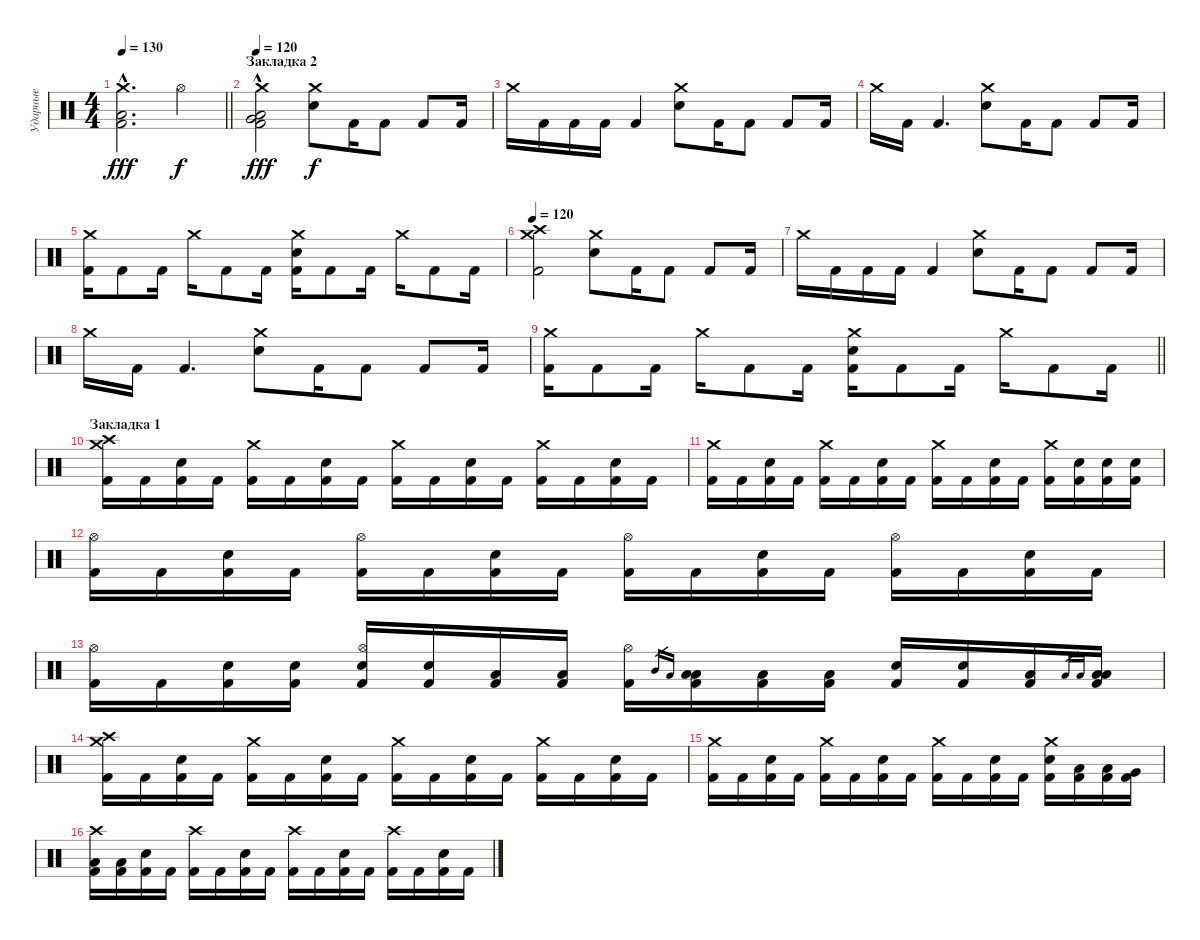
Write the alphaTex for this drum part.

\track ("Ударные" "Ударные") {instrument percussion}
\staff {score}
\articulation defaults
\ts (4 4)
\tempo 130
\clef neutral
\barLineRight lightlight
\ks c
("Crash medium (hit)" "Low Floor Tom (hit)"{hac} "Kick (hit) 2"{hac}).2{d dy fff} "Hi-Hat (open)".4{dy f} |
\section ("" "Закладка 2")
\tempo 120
("Crash medium (hit)" "Very Low Tom (hit)"{hac} "Low Floor Tom (hit)"{hac} "Kick (hit) 2"{hac}).2{dy fff} ("Crash medium (hit)" "Electric Snare (hit)").8{dy f} "Kick (hit) 2".16 "Kick (hit) 2".8 "Kick (hit) 2".8 "Kick (hit) 2".16 |
"Crash medium (hit)".16 "Kick (hit) 2".16 "Kick (hit) 2".16 "Kick (hit) 2".16 "Kick (hit) 2".4 ("Crash medium (hit)" "Electric Snare (hit)").8 "Kick (hit) 2".16 "Kick (hit) 2".8 "Kick (hit) 2".8 "Kick (hit) 2".16 |
"Crash medium (hit)".16 "Kick (hit) 2".16 "Kick (hit) 2".4{d} ("Crash medium (hit)" "Electric Snare (hit)").8 "Kick (hit) 2".16 "Kick (hit) 2".8 "Kick (hit) 2".8 "Kick (hit) 2".16 |
("Crash medium (hit)" "Kick (hit) 2").16 "Kick (hit) 2".8 "Kick (hit) 2".16 "Crash medium (hit)".16 "Kick (hit) 2".8 "Kick (hit) 2".16 ("Crash medium (hit)" "Electric Snare (hit)" "Kick (hit) 2").16 "Kick (hit) 2".8 "Kick (hit) 2".16 "Crash medium (hit)".16 "Kick (hit) 2".8 "Kick (hit) 2".16 |
\tempo 120
("Crash medium (hit)" "Crash high (hit)" "Kick (hit) 2").2 ("Crash medium (hit)" "Electric Snare (hit)").8 "Kick (hit) 2".16 "Kick (hit) 2".8 "Kick (hit) 2".8 "Kick (hit) 2".16 |
"Crash medium (hit)".16 "Kick (hit) 2".16 "Kick (hit) 2".16 "Kick (hit) 2".16 "Kick (hit) 2".4 ("Crash medium (hit)" "Electric Snare (hit)").8 "Kick (hit) 2".16 "Kick (hit) 2".8 "Kick (hit) 2".8 "Kick (hit) 2".16 |
"Crash medium (hit)".16 "Kick (hit) 2".16 "Kick (hit) 2".4{d} ("Crash medium (hit)" "Electric Snare (hit)").8 "Kick (hit) 2".16 "Kick (hit) 2".8 "Kick (hit) 2".8 "Kick (hit) 2".16 |
\barLineRight lightlight
("Crash medium (hit)" "Kick (hit) 2").16 "Kick (hit) 2".8 "Kick (hit) 2".16 "Crash medium (hit)".16 "Kick (hit) 2".8 "Kick (hit) 2".16 ("Crash medium (hit)" "Electric Snare (hit)" "Kick (hit) 2").16 "Kick (hit) 2".8 "Kick (hit) 2".16 "Crash medium (hit)".16 "Kick (hit) 2".8 "Kick (hit) 2".16 |
\section ("" "Закладка 1")
("Crash medium (hit)" "Crash high (hit)" "Kick (hit) 2").16 "Kick (hit) 2".16 ("Electric Snare (hit)" "Kick (hit) 2").16 "Kick (hit) 2".16 ("Crash medium (hit)" "Kick (hit) 2").16 "Kick (hit) 2".16 ("Electric Snare (hit)" "Kick (hit) 2").16 "Kick (hit) 2".16 ("Crash medium (hit)" "Kick (hit) 2").16 "Kick (hit) 2".16 ("Electric Snare (hit)" "Kick (hit) 2").16 "Kick (hit) 2".16 ("Crash medium (hit)" "Kick (hit) 2").16 "Kick (hit) 2".16 ("Electric Snare (hit)" "Kick (hit) 2").16 "Kick (hit) 2".16 |
("Crash medium (hit)" "Kick (hit) 2").16 "Kick (hit) 2".16 ("Electric Snare (hit)" "Kick (hit) 2").16 "Kick (hit) 2".16 ("Crash medium (hit)" "Kick (hit) 2").16 "Kick (hit) 2".16 ("Electric Snare (hit)" "Kick (hit) 2").16 "Kick (hit) 2".16 ("Crash medium (hit)" "Kick (hit) 2").16 "Kick (hit) 2".16 ("Electric Snare (hit)" "Kick (hit) 2").16 "Kick (hit) 2".16 ("Crash medium (hit)" "Kick (hit) 2").16 ("Electric Snare (hit)" "Kick (hit) 2").16 ("Electric Snare (hit)" "Kick (hit) 2").16 ("Electric Snare (hit)" "Kick (hit) 2").16 |
("Hi-Hat (open)" "Kick (hit) 2").16 "Kick (hit) 2".16 ("Electric Snare (hit)" "Kick (hit) 2").16 "Kick (hit) 2".16 ("Hi-Hat (open)" "Kick (hit) 2").16 "Kick (hit) 2".16 ("Electric Snare (hit)" "Kick (hit) 2").16 "Kick (hit) 2".16 ("Hi-Hat (open)" "Kick (hit) 2").16 "Kick (hit) 2".16 ("Electric Snare (hit)" "Kick (hit) 2").16 "Kick (hit) 2".16 ("Hi-Hat (open)" "Kick (hit) 2").16 "Kick (hit) 2".16 ("Electric Snare (hit)" "Kick (hit) 2").16 "Kick (hit) 2".16 |
("Hi-Hat (open)" "Kick (hit) 2").16 "Kick (hit) 2".16 ("Electric Snare (hit)" "Kick (hit) 2").16 ("Electric Snare (hit)" "Kick (hit) 2").16 ("Hi-Hat (open)" "Electric Snare (hit)" "Kick (hit) 2").16 ("Electric Snare (hit)" "Kick (hit) 2").16 ("Low Tom (hit)" "Kick (hit) 2").16 ("Low Tom (hit)" "Kick (hit) 2").16 ("Hi-Hat (open)" "Kick (hit) 2").16 "Mid Tom (hit)".16{gr} "Low Tom (hit)".16{gr} ("Low Tom (hit)" "Low Tom (hit)" "Kick (hit) 2").16 ("Low Tom (hit)" "Kick (hit) 2").16 ("Low Tom (hit)" "Kick (hit) 2").16 ("Electric Snare (hit)" "Kick (hit) 2").16 ("Electric Snare (hit)" "Kick (hit) 2").16 ("Low Floor Tom (hit)" "Kick (hit) 2").16 "Low Floor Tom (hit)".16{gr} "Low Floor Tom (hit)".16{gr} ("Low Floor Tom (hit)" "Low Floor Tom (hit)" "Kick (hit) 2").16 |
("Crash medium (hit)" "Crash high (hit)" "Kick (hit) 2").16 "Kick (hit) 2".16 ("Electric Snare (hit)" "Kick (hit) 2").16 "Kick (hit) 2".16 ("Crash medium (hit)" "Kick (hit) 2").16 "Kick (hit) 2".16 ("Electric Snare (hit)" "Kick (hit) 2").16 "Kick (hit) 2".16 ("Crash medium (hit)" "Kick (hit) 2").16 "Kick (hit) 2".16 ("Electric Snare (hit)" "Kick (hit) 2").16 "Kick (hit) 2".16 ("Crash medium (hit)" "Kick (hit) 2").16 "Kick (hit) 2".16 ("Electric Snare (hit)" "Kick (hit) 2").16 "Kick (hit) 2".16 |
("Crash medium (hit)" "Kick (hit) 2").16 "Kick (hit) 2".16 ("Electric Snare (hit)" "Kick (hit) 2").16 "Kick (hit) 2".16 ("Crash medium (hit)" "Kick (hit) 2").16 "Kick (hit) 2".16 ("Electric Snare (hit)" "Kick (hit) 2").16 "Kick (hit) 2".16 ("Crash medium (hit)" "Kick (hit) 2").16 "Kick (hit) 2".16 ("Electric Snare (hit)" "Kick (hit) 2").16 "Kick (hit) 2".16 ("Crash medium (hit)" "Electric Snare (hit)" "Kick (hit) 2").16 ("Low Tom (hit)" "Kick (hit) 2").16 ("Low Tom (hit)" "Kick (hit) 2").16 ("Very Low Tom (hit)" "Kick (hit) 2").16 |
("Crash high (hit)" "Low Floor Tom (hit)" "Kick (hit) 2").16 ("Low Floor Tom (hit)" "Kick (hit) 2").16 ("Electric Snare (hit)" "Kick (hit) 2").16 "Kick (hit) 2".16 ("Crash high (hit)" "Kick (hit) 2").16 "Kick (hit) 2".16 ("Electric Snare (hit)" "Kick (hit) 2").16 "Kick (hit) 2".16 ("Crash high (hit)" "Kick (hit) 2").16 "Kick (hit) 2".16 ("Electric Snare (hit)" "Kick (hit) 2").16 "Kick (hit) 2".16 ("Crash high (hit)" "Kick (hit) 2").16 "Kick (hit) 2".16 ("Electric Snare (hit)" "Kick (hit) 2").16 "Kick (hit) 2".16
